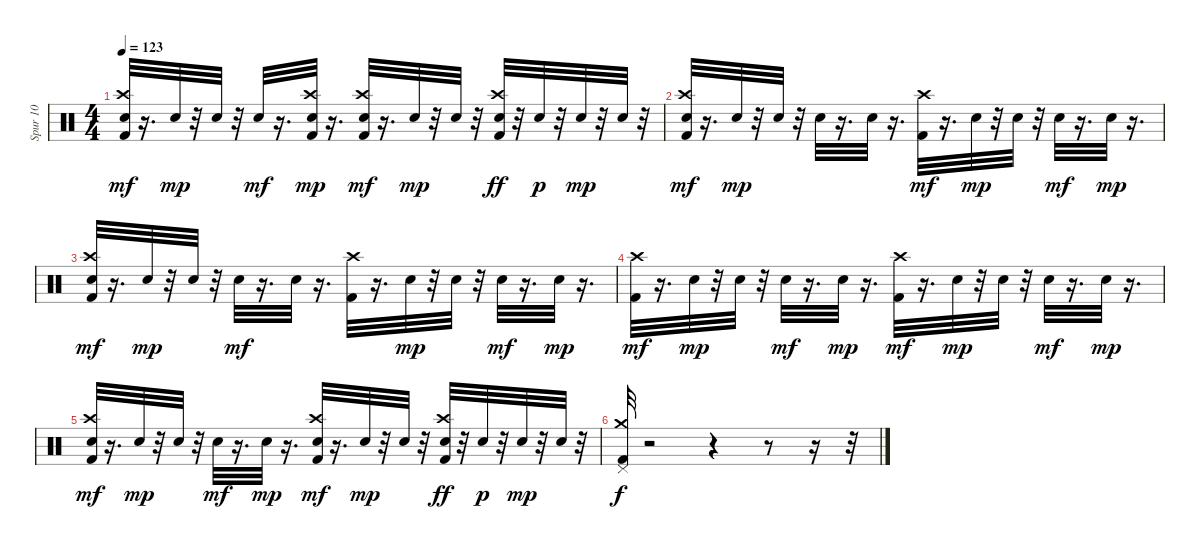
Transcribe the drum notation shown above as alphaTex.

\track ("Spur 10" "Spur 10") {instrument percussion}
\staff {score}
\articulation defaults
\ts (4 4)
\tempo 123
\clef neutral
\ks c
("Kick (hit) 2" "Crash high (hit)" "Snare (hit) 2").32{dy mf} r.16{d} "Snare (hit) 2".32{dy mp} r.32 "Snare (hit) 2".32 r.32 "Snare (hit) 2".32{dy mf} r.16{d} ("Snare (hit) 2" "Kick (hit) 2" "Crash high (hit)").32{dy mp} r.16{d} ("Kick (hit) 2" "Snare (hit) 2" "Crash high (hit)").32{dy mf} r.16{d} "Snare (hit) 2".32{dy mp} r.32 "Snare (hit) 2".32 r.32 ("Snare (hit) 2" "Kick (hit) 2" "Crash high (hit)").32{dy ff} r.32 "Snare (hit) 2".32{dy p} r.32 "Snare (hit) 2".32{dy mp} r.32 "Snare (hit) 2".32 r.32 |
("Kick (hit) 2" "Crash high (hit)" "Snare (hit) 2").32{dy mf} r.16{d} "Snare (hit) 2".32{dy mp} r.32 "Snare (hit) 2".32 r.32 "Snare (hit) 2".32 r.16{d} "Snare (hit) 2".32 r.16{d} ("Kick (hit) 2" "Crash high (hit)").32{dy mf} r.16{d} "Snare (hit) 2".32{dy mp} r.32 "Snare (hit) 2".32 r.32 "Snare (hit) 2".32{dy mf} r.16{d} "Snare (hit) 2".32{dy mp} r.16{d} |
("Kick (hit) 2" "Crash high (hit)" "Snare (hit) 2").32{dy mf} r.16{d} "Snare (hit) 2".32{dy mp} r.32 "Snare (hit) 2".32 r.32 "Snare (hit) 2".32{dy mf} r.16{d} "Snare (hit) 2".32 r.16{d} ("Kick (hit) 2" "Crash high (hit)").32 r.16{d} "Snare (hit) 2".32{dy mp} r.32 "Snare (hit) 2".32 r.32 "Snare (hit) 2".32{dy mf} r.16{d} "Snare (hit) 2".32{dy mp} r.16{d} |
("Kick (hit) 2" "Crash high (hit)").32{dy mf} r.16{d} "Snare (hit) 2".32{dy mp} r.32 "Snare (hit) 2".32 r.32 "Snare (hit) 2".32{dy mf} r.16{d} "Snare (hit) 2".32{dy mp} r.16{d} ("Kick (hit) 2" "Crash high (hit)").32{dy mf} r.16{d} "Snare (hit) 2".32{dy mp} r.32 "Snare (hit) 2".32 r.32 "Snare (hit) 2".32{dy mf} r.16{d} "Snare (hit) 2".32{dy mp} r.16{d} |
("Kick (hit) 2" "Crash high (hit)" "Snare (hit) 2").32{dy mf} r.16{d} "Snare (hit) 2".32{dy mp} r.32 "Snare (hit) 2".32 r.32 "Snare (hit) 2".32{dy mf} r.16{d} "Snare (hit) 2".32{dy mp} r.16{d} ("Kick (hit) 2" "Snare (hit) 2" "Crash high (hit)").32{dy mf} r.16{d} "Snare (hit) 2".32{dy mp} r.32 "Snare (hit) 2".32 r.32 ("Snare (hit) 2" "Kick (hit) 2" "Crash high (hit)").32{dy ff} r.32 "Snare (hit) 2".32{dy p} r.32 "Snare (hit) 2".32{dy mp} r.32 "Snare (hit) 2".32 r.32 |
("Kick (hit) 2" "Crash medium (hit)" "Pedal Hi-Hat (hit)").32{dy f} r.2 r.4 r.8 r.16 r.32
